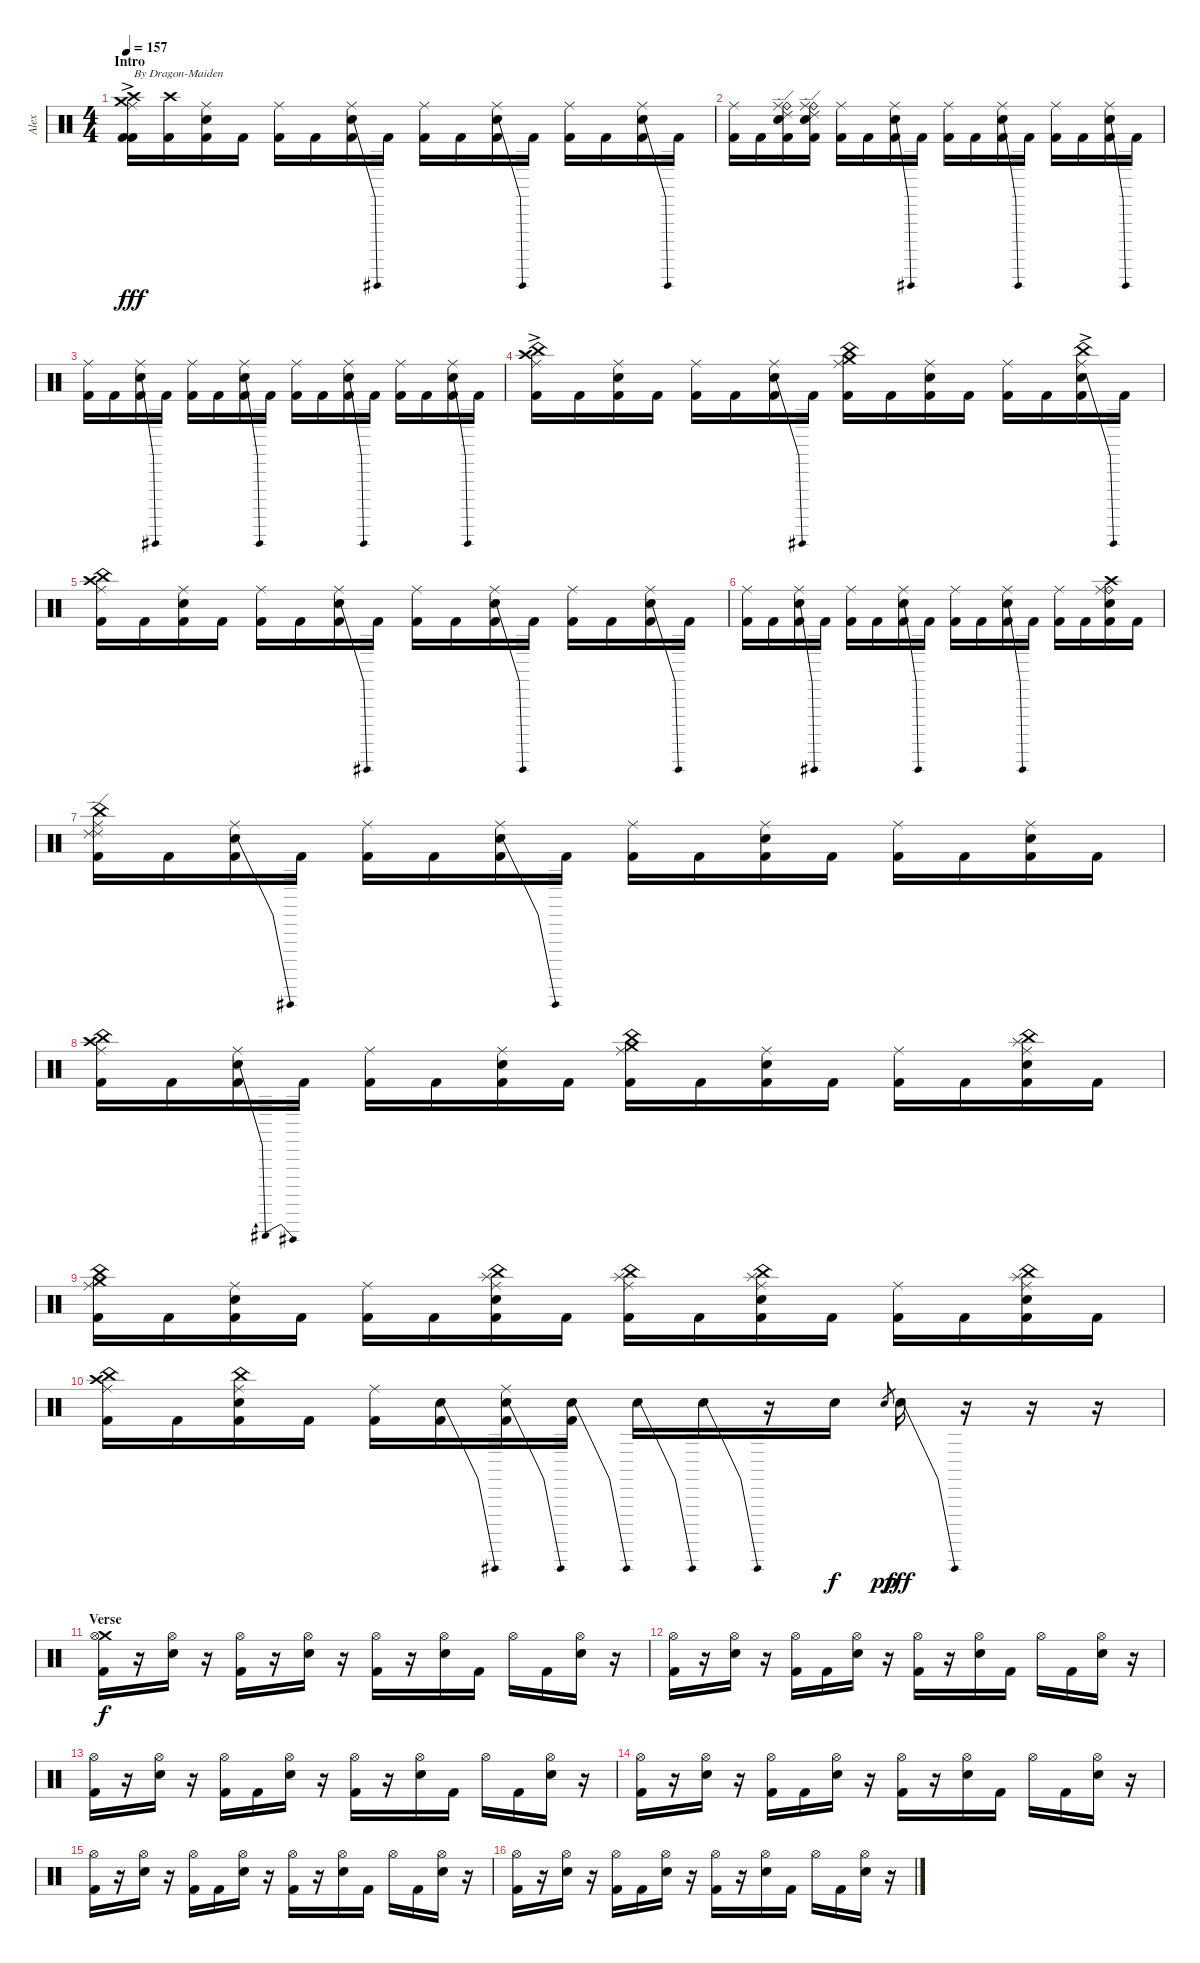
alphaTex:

\track ("Alex" "Alex") {instrument percussion}
\staff {score}
\articulation defaults
\ts (4 4)
\section ("" "Intro")
\tempo 157
\clef neutral
\ks c
("Crash medium (hit)"{ac} "Crash high (hit)" "Ride (middle)" "Kick (hit) 2" "Kick (hit) 2").16{txt "By Dragon-Maiden" dy fff} ("Crash high (hit)" "Kick (hit) 2").16 ("Ride (middle)" "Electric Snare (hit)" "Kick (hit) 2").16 "Kick (hit) 2".16 ("Ride (middle)" "Kick (hit) 2").16 "Kick (hit) 2".16 ("Ride (middle)" "Electric Snare (hit)"{be (bend 0 0 60 12)} "Kick (hit) 2").16 "Kick (hit) 2".16 ("Ride (middle)" "Kick (hit) 2").16 "Kick (hit) 2".16 ("Ride (middle)" "Electric Snare (hit)"{be (bend 0 0 60 12)} "Kick (hit) 2").16 "Kick (hit) 2".16 ("Ride (middle)" "Kick (hit) 2").16 "Kick (hit) 2".16 ("Ride (middle)" "Electric Snare (hit)"{be (bend 0 0 60 12)} "Kick (hit) 2").16 "Kick (hit) 2".16 |
("Ride (middle)" "Kick (hit) 2").16 "Kick (hit) 2".16 ("Ride (bell)" "Ride (edge) 2" "Ride (middle)" "Electric Snare (hit)" "Kick (hit) 2").16 ("Ride (bell)" "Ride (edge) 2" "Ride (middle)" "Electric Snare (hit)" "Kick (hit) 2").16 ("Ride (middle)" "Kick (hit) 2").16 "Kick (hit) 2".16 ("Ride (middle)" "Electric Snare (hit)"{be (bend 0 0 60 12)} "Kick (hit) 2").16 "Kick (hit) 2".16 ("Ride (middle)" "Kick (hit) 2").16 "Kick (hit) 2".16 ("Ride (middle)" "Electric Snare (hit)"{be (bend 0 0 60 12)} "Kick (hit) 2").16 "Kick (hit) 2".16 ("Ride (middle)" "Kick (hit) 2").16 "Kick (hit) 2".16 ("Ride (middle)" "Electric Snare (hit)"{be (bend 0 0 60 12)} "Kick (hit) 2").16 "Kick (hit) 2".16 |
("Ride (middle)" "Kick (hit) 2").16 "Kick (hit) 2".16 ("Ride (middle)" "Electric Snare (hit)"{be (bend 0 0 60 12)} "Kick (hit) 2").16 "Kick (hit) 2".16 ("Ride (middle)" "Kick (hit) 2").16 "Kick (hit) 2".16 ("Ride (middle)" "Electric Snare (hit)"{be (bend 0 0 60 12)} "Kick (hit) 2").16 "Kick (hit) 2".16 ("Ride (middle)" "Kick (hit) 2").16 "Kick (hit) 2".16 ("Ride (middle)" "Electric Snare (hit)"{be (bend 0 0 60 12)} "Kick (hit) 2").16 "Kick (hit) 2".16 ("Ride (middle)" "Kick (hit) 2").16 "Kick (hit) 2".16 ("Ride (middle)" "Electric Snare (hit)"{be (bend 0 0 60 12)} "Kick (hit) 2").16 "Kick (hit) 2".16 |
("China (hit)"{ac} "Crash high (hit)"{ac} "Ride (middle)" "Kick (hit) 2").16 "Kick (hit) 2".16 ("Ride (middle)" "Electric Snare (hit)" "Kick (hit) 2").16 "Kick (hit) 2".16 ("Ride (middle)" "Kick (hit) 2").16 "Kick (hit) 2".16 ("Ride (middle)" "Electric Snare (hit)"{be (bend 0 0 60 12)} "Kick (hit) 2").16 "Kick (hit) 2".16 ("China (hit)" "Crash medium (hit)" "Ride (middle)" "Kick (hit) 2").16 "Kick (hit) 2".16 ("Ride (middle)" "Electric Snare (hit)" "Kick (hit) 2").16 "Kick (hit) 2".16 ("Ride (middle)" "Kick (hit) 2").16 "Kick (hit) 2".16 ("China (hit)"{ac} "Ride (middle)" "Electric Snare (hit)"{be (bend 0 0 60 12)} "Kick (hit) 2").16 "Kick (hit) 2".16 |
("China (hit)" "Crash high (hit)" "Ride (middle)" "Kick (hit) 2").16 "Kick (hit) 2".16 ("Ride (middle)" "Electric Snare (hit)" "Kick (hit) 2").16 "Kick (hit) 2".16 ("Ride (middle)" "Kick (hit) 2").16 "Kick (hit) 2".16 ("Ride (middle)" "Electric Snare (hit)"{be (bend 0 0 60 12)} "Kick (hit) 2").16 "Kick (hit) 2".16 ("Ride (middle)" "Kick (hit) 2").16 "Kick (hit) 2".16 ("Ride (middle)" "Electric Snare (hit)"{be (bend 0 0 60 12)} "Kick (hit) 2").16 "Kick (hit) 2".16 ("Ride (middle)" "Kick (hit) 2").16 "Kick (hit) 2".16 ("Ride (middle)" "Electric Snare (hit)"{be (bend 0 0 60 12)} "Kick (hit) 2").16 "Kick (hit) 2".16 |
("Ride (middle)" "Kick (hit) 2").16 "Kick (hit) 2".16 ("Ride (middle)" "Electric Snare (hit)"{be (bend 0 0 60 12)} "Kick (hit) 2").16 "Kick (hit) 2".16 ("Ride (middle)" "Kick (hit) 2").16 "Kick (hit) 2".16 ("Ride (middle)" "Electric Snare (hit)"{be (bend 0 0 60 12)} "Kick (hit) 2").16 "Kick (hit) 2".16 ("Ride (middle)" "Kick (hit) 2").16 "Kick (hit) 2".16 ("Ride (middle)" "Electric Snare (hit)"{be (bend 0 0 60 12)} "Kick (hit) 2").16 "Kick (hit) 2".16 ("Ride (middle)" "Kick (hit) 2").16 "Kick (hit) 2".16 ("Ride (bell)" "Crash high (hit)" "Ride (middle)" "Electric Snare (hit)" "Kick (hit) 2").16 "Kick (hit) 2".16 |
("Ride (edge) 2" "China (hit)" "Ride (middle)" "Ride (edge) 2" "Kick (hit) 2").16 "Kick (hit) 2".16 ("Ride (middle)" "Electric Snare (hit)"{be (bend 0 0 60 12)} "Kick (hit) 2").16 "Kick (hit) 2".16 ("Ride (middle)" "Kick (hit) 2").16 "Kick (hit) 2".16 ("Ride (middle)" "Electric Snare (hit)"{be (bend 0 0 60 12)} "Kick (hit) 2").16 "Kick (hit) 2".16 ("Ride (middle)" "Kick (hit) 2").16 "Kick (hit) 2".16 ("Ride (middle)" "Electric Snare (hit)" "Kick (hit) 2").16 "Kick (hit) 2".16 ("Ride (middle)" "Kick (hit) 2").16 "Kick (hit) 2".16 ("Ride (middle)" "Electric Snare (hit)" "Kick (hit) 2").16 "Kick (hit) 2".16 |
("China (hit)" "Crash high (hit)" "Ride (middle)" "Kick (hit) 2").16 "Kick (hit) 2".16 ("Ride (middle)" "Electric Snare (hit)"{be (bendrelease 0 0 30 9 30 9 60 4)} "Kick (hit) 2").16 "Kick (hit) 2".16 ("Ride (middle)" "Kick (hit) 2").16 "Kick (hit) 2".16 ("Ride (middle)" "Electric Snare (hit)" "Kick (hit) 2").16 "Kick (hit) 2".16 ("China (hit)" "Crash medium (hit)" "Ride (middle)" "Kick (hit) 2").16 "Kick (hit) 2".16 ("Ride (middle)" "Electric Snare (hit)" "Kick (hit) 2").16 "Kick (hit) 2".16 ("Ride (middle)" "Kick (hit) 2").16 "Kick (hit) 2".16 ("China (hit)" "Splash (hit)" "Ride (middle)" "Electric Snare (hit)" "Kick (hit) 2").16 "Kick (hit) 2".16 |
("Crash medium (hit)" "China (hit)" "Ride (middle)" "Kick (hit) 2").16 "Kick (hit) 2".16 ("Ride (middle)" "Electric Snare (hit)" "Kick (hit) 2").16 "Kick (hit) 2".16 ("Ride (middle)" "Kick (hit) 2").16 "Kick (hit) 2".16 ("China (hit)" "Splash (hit)" "Ride (middle)" "Electric Snare (hit)" "Kick (hit) 2").16 "Kick (hit) 2".16 ("China (hit)" "Splash (hit)" "Ride (middle)" "Kick (hit) 2").16 "Kick (hit) 2".16 ("China (hit)" "Splash (hit)" "Ride (middle)" "Electric Snare (hit)" "Kick (hit) 2").16 "Kick (hit) 2".16 ("Ride (middle)" "Kick (hit) 2").16 "Kick (hit) 2".16 ("China (hit)" "Splash (hit)" "Ride (middle)" "Electric Snare (hit)" "Kick (hit) 2").16 "Kick (hit) 2".16 |
("China (hit)" "Crash high (hit)" "Ride (middle)" "Kick (hit) 2").16 "Kick (hit) 2".16 ("China (hit)" "Ride (middle)" "Electric Snare (hit)" "Kick (hit) 2").16 "Kick (hit) 2".16 ("Ride (middle)" "Kick (hit) 2").16 ("Electric Snare (hit)"{be (bend 0 0 60 12)} "Kick (hit) 2").16 ("Ride (middle)" "Electric Snare (hit)"{be (bend 0 0 60 12)} "Kick (hit) 2").16 ("Electric Snare (hit)"{be (bend 0 0 60 12)} "Kick (hit) 2").16 "Electric Snare (hit)"{be (bend 0 0 60 12)}.16 "Electric Snare (hit)"{be (bend 0 0 60 12)}.16 r.16 "Electric Snare (hit)".16{dy f} "Electric Snare (hit)".8{gr dy pp} "Electric Snare (hit)"{be (bend 0 0 60 12)}.16{dy fff} r.16 r.16 r.16 |
\section ("" "Verse")
("Crash medium (hit)" "Hi-Hat (open)" "Kick (hit) 2").16{dy f} r.16 ("Hi-Hat (open)" "Electric Snare (hit)").16 r.16 ("Hi-Hat (open)" "Kick (hit) 2").16 r.16 ("Hi-Hat (open)" "Electric Snare (hit)").16 r.16 ("Hi-Hat (open)" "Kick (hit) 2").16 r.16 ("Hi-Hat (open)" "Electric Snare (hit)").16 "Kick (hit) 2".16 "Hi-Hat (open)".16 "Kick (hit) 2".16 ("Hi-Hat (open)" "Electric Snare (hit)").16 r.16 |
("Hi-Hat (open)" "Kick (hit) 2").16 r.16 ("Hi-Hat (open)" "Electric Snare (hit)").16 r.16 ("Hi-Hat (open)" "Kick (hit) 2").16 "Kick (hit) 2".16 ("Hi-Hat (open)" "Electric Snare (hit)").16 r.16 ("Hi-Hat (open)" "Kick (hit) 2").16 r.16 ("Hi-Hat (open)" "Electric Snare (hit)").16 "Kick (hit) 2".16 "Hi-Hat (open)".16 "Kick (hit) 2".16 ("Hi-Hat (open)" "Electric Snare (hit)").16 r.16 |
("Hi-Hat (open)" "Kick (hit) 2").16 r.16 ("Hi-Hat (open)" "Electric Snare (hit)").16 r.16 ("Hi-Hat (open)" "Kick (hit) 2").16 "Kick (hit) 2".16 ("Hi-Hat (open)" "Electric Snare (hit)").16 r.16 ("Hi-Hat (open)" "Kick (hit) 2").16 r.16 ("Hi-Hat (open)" "Electric Snare (hit)").16 "Kick (hit) 2".16 "Hi-Hat (open)".16 "Kick (hit) 2".16 ("Hi-Hat (open)" "Electric Snare (hit)").16 r.16 |
("Hi-Hat (open)" "Kick (hit) 2").16 r.16 ("Hi-Hat (open)" "Electric Snare (hit)").16 r.16 ("Hi-Hat (open)" "Kick (hit) 2").16 "Kick (hit) 2".16 ("Hi-Hat (open)" "Electric Snare (hit)").16 r.16 ("Hi-Hat (open)" "Kick (hit) 2").16 r.16 ("Hi-Hat (open)" "Electric Snare (hit)").16 "Kick (hit) 2".16 "Hi-Hat (open)".16 "Kick (hit) 2".16 ("Hi-Hat (open)" "Electric Snare (hit)").16 r.16 |
("Hi-Hat (open)" "Kick (hit) 2").16 r.16 ("Hi-Hat (open)" "Electric Snare (hit)").16 r.16 ("Hi-Hat (open)" "Kick (hit) 2").16 "Kick (hit) 2".16 ("Hi-Hat (open)" "Electric Snare (hit)").16 r.16 ("Hi-Hat (open)" "Kick (hit) 2").16 r.16 ("Hi-Hat (open)" "Electric Snare (hit)").16 "Kick (hit) 2".16 "Hi-Hat (open)".16 "Kick (hit) 2".16 ("Hi-Hat (open)" "Electric Snare (hit)").16 r.16 |
("Hi-Hat (open)" "Kick (hit) 2").16 r.16 ("Hi-Hat (open)" "Electric Snare (hit)").16 r.16 ("Hi-Hat (open)" "Kick (hit) 2").16 "Kick (hit) 2".16 ("Hi-Hat (open)" "Electric Snare (hit)").16 r.16 ("Hi-Hat (open)" "Kick (hit) 2").16 r.16 ("Hi-Hat (open)" "Electric Snare (hit)").16 "Kick (hit) 2".16 "Hi-Hat (open)".16 "Kick (hit) 2".16 ("Hi-Hat (open)" "Electric Snare (hit)").16 r.16
